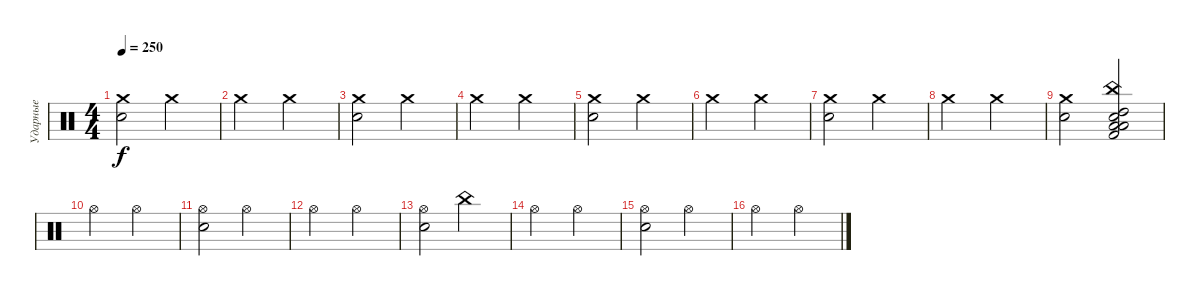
\track ("Ударные" "Ударные") {instrument percussion}
\staff {score}
\articulation defaults
\ts (4 4)
\tempo 250
\clef neutral
\ks c
("Snare (hit) 2" "Crash medium (hit)").2{dy f} "Crash medium (hit)".2 |
"Crash medium (hit)".2 "Crash medium (hit)".2 |
("Snare (hit) 2" "Crash medium (hit)").2 "Crash medium (hit)".2 |
"Crash medium (hit)".2 "Crash medium (hit)".2 |
("Snare (hit) 2" "Crash medium (hit)").2 "Crash medium (hit)".2 |
"Crash medium (hit)".2 "Crash medium (hit)".2 |
("Snare (hit) 2" "Crash medium (hit)").2 "Crash medium (hit)".2 |
"Crash medium (hit)".2 "Crash medium (hit)".2 |
("Snare (hit) 2" "Crash medium (hit)").2 ("Snare (hit) 2" "Low Floor Tom (hit)" "High Tom (hit)" "Low Tom (hit)" "China (hit)" "Kick (hit) 2").2 |
"Hi-Hat (open)".2 "Hi-Hat (open)".2 |
("Snare (hit) 2" "Hi-Hat (open)").2 "Hi-Hat (open)".2 |
"Hi-Hat (open)".2 "Hi-Hat (open)".2 |
("Snare (hit) 2" "Hi-Hat (open)").2 "China (hit)".2 |
"Hi-Hat (open)".2 "Hi-Hat (open)".2 |
("Snare (hit) 2" "Hi-Hat (open)").2 "Hi-Hat (open)".2 |
"Hi-Hat (open)".2 "Hi-Hat (open)".2
